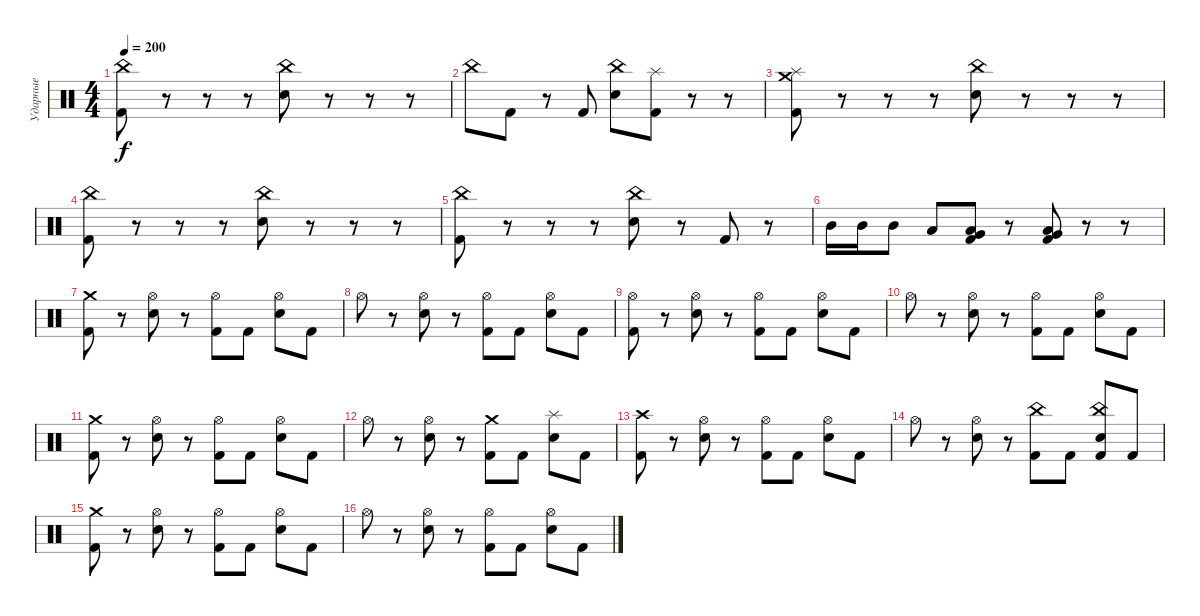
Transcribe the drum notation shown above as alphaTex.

\track ("Ударные" "Ударные") {instrument percussion}
\staff {score}
\articulation defaults
\ts (4 4)
\tempo 200
\clef neutral
\ks c
("Kick (hit) 2" "China (hit)").8{dy f} r.8 r.8 r.8 ("Electric Snare (hit)" "China (hit)").8 r.8 r.8 r.8 |
"China (hit)".8 "Kick (hit) 2".8 r.8 "Kick (hit) 2".8 ("Electric Snare (hit)" "China (hit)").8 ("Kick (hit) 2" "Splash (hit)").8 r.8 r.8 |
("Kick (hit) 2" "Splash (hit)" "Crash medium (hit)").8 r.8 r.8 r.8 ("Electric Snare (hit)" "China (hit)").8 r.8 r.8 r.8 |
("Kick (hit) 2" "China (hit)").8 r.8 r.8 r.8 ("Electric Snare (hit)" "China (hit)").8 r.8 r.8 r.8 |
("Kick (hit) 2" "China (hit)").8 r.8 r.8 r.8 ("Electric Snare (hit)" "China (hit)").8 r.8 "Kick (hit) 2".8 r.8 |
"Mid Tom (hit)".16 "Mid Tom (hit)".16 "Mid Tom (hit)".8 "Low Tom (hit)".8 ("Kick (hit) 2" "Low Floor Tom (hit)" "Very Low Tom (hit)").8 r.8 ("Kick (hit) 2" "Low Floor Tom (hit)" "Very Low Tom (hit)").8 r.8 r.8 |
("Kick (hit) 2" "Crash medium (hit)").8 r.8 ("Electric Snare (hit)" "Hi-Hat (open)").8 r.8 ("Kick (hit) 2" "Hi-Hat (open)").8 "Kick (hit) 2".8 ("Electric Snare (hit)" "Hi-Hat (open)").8 "Kick (hit) 2".8 |
"Hi-Hat (open)".8 r.8 ("Electric Snare (hit)" "Hi-Hat (open)").8 r.8 ("Kick (hit) 2" "Hi-Hat (open)").8 "Kick (hit) 2".8 ("Electric Snare (hit)" "Hi-Hat (open)").8 "Kick (hit) 2".8 |
("Kick (hit) 2" "Hi-Hat (open)").8 r.8 ("Electric Snare (hit)" "Hi-Hat (open)").8 r.8 ("Kick (hit) 2" "Hi-Hat (open)").8 "Kick (hit) 2".8 ("Electric Snare (hit)" "Hi-Hat (open)").8 "Kick (hit) 2".8 |
"Hi-Hat (open)".8 r.8 ("Electric Snare (hit)" "Hi-Hat (open)").8 r.8 ("Kick (hit) 2" "Hi-Hat (open)").8 "Kick (hit) 2".8 ("Electric Snare (hit)" "Hi-Hat (open)").8 "Kick (hit) 2".8 |
("Kick (hit) 2" "Crash medium (hit)").8 r.8 ("Electric Snare (hit)" "Hi-Hat (open)").8 r.8 ("Kick (hit) 2" "Hi-Hat (open)").8 "Kick (hit) 2".8 ("Electric Snare (hit)" "Hi-Hat (open)").8 "Kick (hit) 2".8 |
"Hi-Hat (open)".8 r.8 ("Electric Snare (hit)" "Hi-Hat (open)").8 r.8 ("Kick (hit) 2" "Crash medium (hit)").8 "Kick (hit) 2".8 ("Electric Snare (hit)" "Splash (hit)").8 "Kick (hit) 2".8 |
("Kick (hit) 2" "Crash high (hit)").8 r.8 ("Electric Snare (hit)" "Hi-Hat (open)").8 r.8 ("Kick (hit) 2" "Hi-Hat (open)").8 "Kick (hit) 2".8 ("Electric Snare (hit)" "Hi-Hat (open)").8 "Kick (hit) 2".8 |
"Hi-Hat (open)".8 r.8 ("Electric Snare (hit)" "Hi-Hat (open)").8 r.8 ("Kick (hit) 2" "China (hit)").8 "Kick (hit) 2".8 ("Kick (hit) 2" "Electric Snare (hit)" "China (hit)").8 "Kick (hit) 2".8 |
("Kick (hit) 2" "Crash medium (hit)").8 r.8 ("Electric Snare (hit)" "Hi-Hat (open)").8 r.8 ("Kick (hit) 2" "Hi-Hat (open)").8 "Kick (hit) 2".8 ("Electric Snare (hit)" "Hi-Hat (open)").8 "Kick (hit) 2".8 |
"Hi-Hat (open)".8 r.8 ("Electric Snare (hit)" "Hi-Hat (open)").8 r.8 ("Kick (hit) 2" "Hi-Hat (open)").8 "Kick (hit) 2".8 ("Electric Snare (hit)" "Hi-Hat (open)").8 "Kick (hit) 2".8
